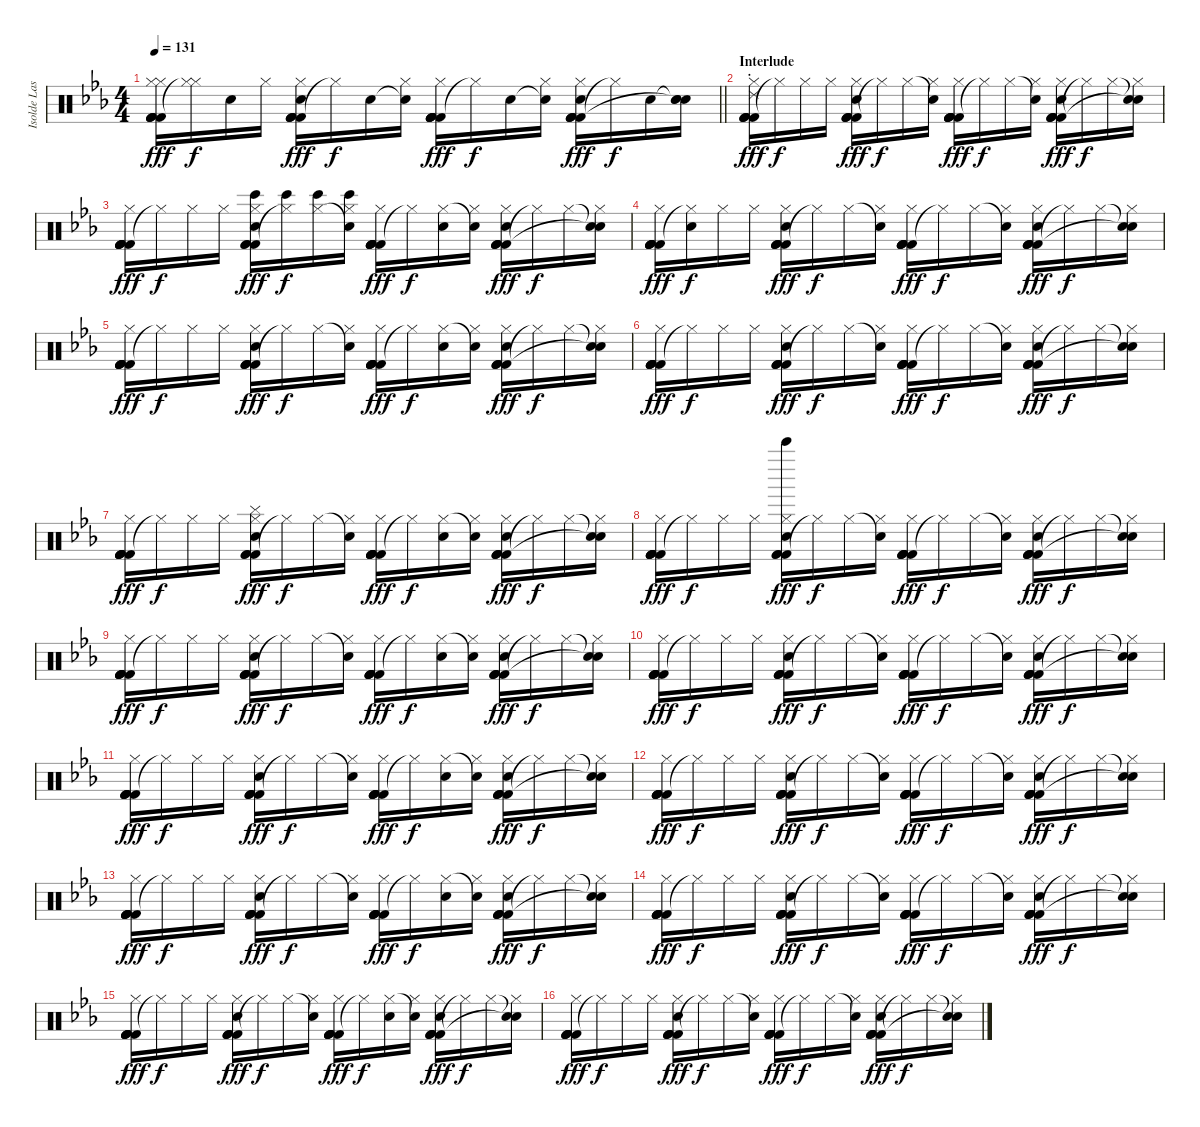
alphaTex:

\track ("Isolde Lasoen (Percussion)" "Isolde Las") {instrument percussion}
\staff {score}
\articulation defaults
\ts (4 4)
\tempo 131
\clef neutral
\barLineRight lightlight
\ks cminor
("Hi-Hat (closed)" "Kick (hit) 2" "Kick (hit) 2" "Kick (hit) 2" "Hi-Hat (closed)" "Kick (hit) 2").16{dy fff} ("Hi-Hat (closed)" "Hi-Hat (closed)"{t}).16{dy f} "Hand Clap (hit)".16 "Hi-Hat (closed)".16 ("Kick (hit) 2" "Kick (hit) 2" "Kick (hit) 2" "Kick (hit) 2" "Hi-Hat (closed)" "Hand Clap (hit)").16{dy fff} "Hi-Hat (closed)"{t}.16{dy f} "Hand Clap (hit)".16 ("Snare (hit)"{t} "Hi-Hat (closed)").16 ("Kick (hit) 2" "Kick (hit) 2" "Kick (hit) 2" "Kick (hit) 2" "Hi-Hat (closed)" "Kick (hit) 2").16{dy fff} "Hi-Hat (closed)"{t}.16{dy f} "Hand Clap (hit)".16 ("Snare (hit)"{t} "Hi-Hat (closed)").16 ("Kick (hit) 2" "Kick (hit) 2" "Kick (hit) 2" "Kick (hit) 2" "Hi-Hat (closed)" "Hand Clap (hit)").16{dy fff} "Hi-Hat (closed)"{t}.16{dy f} "Hand Clap (hit)".16 ("Snare (hit)"{t} "Hand Clap (hit)" "Snare (hit)"{t}).16 |
\section ("" "Interlude")
("Kick (hit) 2" "Kick (hit) 2" "Ride (choke) 2" "Kick (hit) 2" "Hi-Hat (closed)" "Kick (hit) 2").16{dy fff} "Hi-Hat (closed)"{t}.16{dy f} "Hi-Hat (closed)".16 "Hi-Hat (closed)".16 ("Kick (hit) 2" "Kick (hit) 2" "Kick (hit) 2" "Kick (hit) 2" "Hi-Hat (closed)" "Hand Clap (hit)").16{dy fff} "Hi-Hat (closed)"{t}.16{dy f} "Hi-Hat (closed)".16 ("Snare (hit)"{t} "Hi-Hat (closed)").16 ("Kick (hit) 2" "Kick (hit) 2" "Kick (hit) 2" "Kick (hit) 2" "Hi-Hat (closed)" "Kick (hit) 2").16{dy fff} "Hi-Hat (closed)"{t}.16{dy f} "Hi-Hat (closed)".16 ("Snare (hit)"{t} "Hi-Hat (closed)").16 ("Kick (hit) 2" "Kick (hit) 2" "Kick (hit) 2" "Kick (hit) 2" "Hi-Hat (closed)" "Hand Clap (hit)").16{dy fff} "Hi-Hat (closed)"{t}.16{dy f} "Hi-Hat (closed)".16 ("Snare (hit)"{t} "Hi-Hat (closed)" "Snare (hit)"{t}).16 |
("Kick (hit) 2" "Kick (hit) 2" "Kick (hit) 2" "Kick (hit) 2" "Hi-Hat (closed)" "Kick (hit) 2").16{dy fff} "Hi-Hat (closed)"{t}.16{dy f} "Hi-Hat (closed)".16 "Hi-Hat (closed)".16 ("Kick (hit) 2" "Kick (hit) 2" "Bongo High (hit)" "Kick (hit) 2" "Hi-Hat (closed)" "Hand Clap (hit)").16{dy fff} ("Bongo High (hit)" "Hi-Hat (closed)"{t}).16{dy f} ("Bongo High (hit)" "Hi-Hat (closed)").16 ("Bongo High (hit)" "Snare (hit)"{t} "Hi-Hat (closed)").16 ("Kick (hit) 2" "Kick (hit) 2" "Kick (hit) 2" "Kick (hit) 2" "Hi-Hat (closed)" "Kick (hit) 2").16{dy fff} "Hi-Hat (closed)"{t}.16{dy f} ("Hi-Hat (closed)" "Hand Clap (hit)").16 ("Snare (hit)"{t} "Hi-Hat (closed)").16 ("Kick (hit) 2" "Kick (hit) 2" "Kick (hit) 2" "Kick (hit) 2" "Hi-Hat (closed)" "Hand Clap (hit)").16{dy fff} "Hi-Hat (closed)"{t}.16{dy f} "Hi-Hat (closed)".16 ("Snare (hit)"{t} "Hi-Hat (closed)" "Snare (hit)"{t}).16 |
("Kick (hit) 2" "Kick (hit) 2" "Kick (hit) 2" "Kick (hit) 2" "Hi-Hat (closed)" "Kick (hit) 2").16{dy fff} ("Metronome (bell)" "Hi-Hat (closed)"{t}).16{dy f} "Hi-Hat (closed)".16 "Hi-Hat (closed)".16 ("Kick (hit) 2" "Kick (hit) 2" "Kick (hit) 2" "Kick (hit) 2" "Hi-Hat (closed)" "Hand Clap (hit)").16{dy fff} "Hi-Hat (closed)"{t}.16{dy f} "Hi-Hat (closed)".16 ("Snare (hit)"{t} "Hi-Hat (closed)").16 ("Kick (hit) 2" "Kick (hit) 2" "Kick (hit) 2" "Kick (hit) 2" "Hi-Hat (closed)" "Kick (hit) 2").16{dy fff} "Hi-Hat (closed)"{t}.16{dy f} "Hi-Hat (closed)".16 ("Snare (hit)"{t} "Hi-Hat (closed)").16 ("Kick (hit) 2" "Kick (hit) 2" "Kick (hit) 2" "Kick (hit) 2" "Hi-Hat (closed)" "Hand Clap (hit)").16{dy fff} "Hi-Hat (closed)"{t}.16{dy f} "Hi-Hat (closed)".16 ("Snare (hit)"{t} "Hi-Hat (closed)" "Snare (hit)"{t}).16 |
("Kick (hit) 2" "Kick (hit) 2" "Kick (hit) 2" "Kick (hit) 2" "Hi-Hat (closed)" "Kick (hit) 2").16{dy fff} "Hi-Hat (closed)"{t}.16{dy f} "Hi-Hat (closed)".16 "Hi-Hat (closed)".16 ("Kick (hit) 2" "Kick (hit) 2" "Kick (hit) 2" "Kick (hit) 2" "Hi-Hat (closed)" "Hand Clap (hit)").16{dy fff} "Hi-Hat (closed)"{t}.16{dy f} "Hi-Hat (closed)".16 ("Snare (hit)"{t} "Hi-Hat (closed)").16 ("Kick (hit) 2" "Kick (hit) 2" "Kick (hit) 2" "Kick (hit) 2" "Hi-Hat (closed)" "Kick (hit) 2").16{dy fff} "Hi-Hat (closed)"{t}.16{dy f} ("Hi-Hat (closed)" "Hand Clap (hit)").16 ("Snare (hit)"{t} "Hi-Hat (closed)").16 ("Kick (hit) 2" "Kick (hit) 2" "Kick (hit) 2" "Kick (hit) 2" "Hi-Hat (closed)" "Hand Clap (hit)").16{dy fff} "Hi-Hat (closed)"{t}.16{dy f} "Hi-Hat (closed)".16 ("Snare (hit)"{t} "Hi-Hat (closed)" "Snare (hit)"{t}).16 |
("Kick (hit) 2" "Kick (hit) 2" "Kick (hit) 2" "Kick (hit) 2" "Hi-Hat (closed)" "Kick (hit) 2").16{dy fff} "Hi-Hat (closed)"{t}.16{dy f} "Hi-Hat (closed)".16 "Hi-Hat (closed)".16 ("Kick (hit) 2" "Kick (hit) 2" "Kick (hit) 2" "Kick (hit) 2" "Hi-Hat (closed)" "Hand Clap (hit)").16{dy fff} "Hi-Hat (closed)"{t}.16{dy f} "Hi-Hat (closed)".16 ("Snare (hit)"{t} "Hi-Hat (closed)").16 ("Kick (hit) 2" "Kick (hit) 2" "Kick (hit) 2" "Kick (hit) 2" "Hi-Hat (closed)" "Kick (hit) 2").16{dy fff} "Hi-Hat (closed)"{t}.16{dy f} "Hi-Hat (closed)".16 ("Snare (hit)"{t} "Hi-Hat (closed)").16 ("Kick (hit) 2" "Kick (hit) 2" "Kick (hit) 2" "Kick (hit) 2" "Hi-Hat (closed)" "Hand Clap (hit)").16{dy fff} "Hi-Hat (closed)"{t}.16{dy f} "Hi-Hat (closed)".16 ("Snare (hit)"{t} "Hi-Hat (closed)" "Snare (hit)"{t}).16 |
("Kick (hit) 2" "Kick (hit) 2" "Kick (hit) 2" "Kick (hit) 2" "Hi-Hat (closed)" "Kick (hit) 2").16{dy fff} "Hi-Hat (closed)"{t}.16{dy f} "Hi-Hat (closed)".16 "Hi-Hat (closed)".16 ("Kick (hit) 2" "Kick (hit) 2" "Cymbal (hit)" "Kick (hit) 2" "Hi-Hat (closed)" "Hand Clap (hit)").16{dy fff} "Hi-Hat (closed)"{t}.16{dy f} "Hi-Hat (closed)".16 ("Snare (hit)"{t} "Hi-Hat (closed)").16 ("Kick (hit) 2" "Kick (hit) 2" "Kick (hit) 2" "Kick (hit) 2" "Hi-Hat (closed)" "Kick (hit) 2").16{dy fff} "Hi-Hat (closed)"{t}.16{dy f} ("Hi-Hat (closed)" "Hand Clap (hit)").16 ("Snare (hit)"{t} "Hi-Hat (closed)").16 ("Kick (hit) 2" "Kick (hit) 2" "Kick (hit) 2" "Kick (hit) 2" "Hi-Hat (closed)" "Hand Clap (hit)").16{dy fff} "Hi-Hat (closed)"{t}.16{dy f} "Hi-Hat (closed)".16 ("Snare (hit)"{t} "Hi-Hat (closed)" "Snare (hit)"{t}).16 |
("Kick (hit) 2" "Kick (hit) 2" "Kick (hit) 2" "Kick (hit) 2" "Hi-Hat (closed)" "Kick (hit) 2").16{dy fff} "Hi-Hat (closed)"{t}.16{dy f} "Hi-Hat (closed)".16 "Hi-Hat (closed)".16 ("Kick (hit) 2" "Kick (hit) 2" "Bell Tree (hit)" "Kick (hit) 2" "Hi-Hat (closed)" "Hand Clap (hit)").16{dy fff} "Hi-Hat (closed)"{t}.16{dy f} "Hi-Hat (closed)".16 ("Snare (hit)"{t} "Hi-Hat (closed)").16 ("Kick (hit) 2" "Kick (hit) 2" "Kick (hit) 2" "Kick (hit) 2" "Hi-Hat (closed)" "Kick (hit) 2").16{dy fff} "Hi-Hat (closed)"{t}.16{dy f} "Hi-Hat (closed)".16 ("Snare (hit)"{t} "Hi-Hat (closed)").16 ("Kick (hit) 2" "Kick (hit) 2" "Kick (hit) 2" "Kick (hit) 2" "Hi-Hat (closed)" "Hand Clap (hit)").16{dy fff} "Hi-Hat (closed)"{t}.16{dy f} "Hi-Hat (closed)".16 ("Snare (hit)"{t} "Hi-Hat (closed)" "Snare (hit)"{t}).16 |
("Kick (hit) 2" "Kick (hit) 2" "Kick (hit) 2" "Kick (hit) 2" "Hi-Hat (closed)" "Kick (hit) 2").16{dy fff} "Hi-Hat (closed)"{t}.16{dy f} "Hi-Hat (closed)".16 "Hi-Hat (closed)".16 ("Kick (hit) 2" "Kick (hit) 2" "Kick (hit) 2" "Kick (hit) 2" "Hi-Hat (closed)" "Hand Clap (hit)").16{dy fff} "Hi-Hat (closed)"{t}.16{dy f} "Hi-Hat (closed)".16 ("Snare (hit)"{t} "Hi-Hat (closed)").16 ("Kick (hit) 2" "Kick (hit) 2" "Kick (hit) 2" "Kick (hit) 2" "Hi-Hat (closed)" "Kick (hit) 2").16{dy fff} "Hi-Hat (closed)"{t}.16{dy f} ("Hi-Hat (closed)" "Hand Clap (hit)").16 ("Snare (hit)"{t} "Hi-Hat (closed)").16 ("Kick (hit) 2" "Kick (hit) 2" "Kick (hit) 2" "Kick (hit) 2" "Hi-Hat (closed)" "Hand Clap (hit)").16{dy fff} "Hi-Hat (closed)"{t}.16{dy f} "Hi-Hat (closed)".16 ("Snare (hit)"{t} "Hi-Hat (closed)" "Snare (hit)"{t}).16 |
("Kick (hit) 2" "Kick (hit) 2" "Kick (hit) 2" "Kick (hit) 2" "Hi-Hat (closed)" "Kick (hit) 2").16{dy fff} "Hi-Hat (closed)"{t}.16{dy f} "Hi-Hat (closed)".16 "Hi-Hat (closed)".16 ("Kick (hit) 2" "Kick (hit) 2" "Kick (hit) 2" "Kick (hit) 2" "Hi-Hat (closed)" "Hand Clap (hit)").16{dy fff} "Hi-Hat (closed)"{t}.16{dy f} "Hi-Hat (closed)".16 ("Snare (hit)"{t} "Hi-Hat (closed)").16 ("Kick (hit) 2" "Kick (hit) 2" "Kick (hit) 2" "Kick (hit) 2" "Hi-Hat (closed)" "Kick (hit) 2").16{dy fff} "Hi-Hat (closed)"{t}.16{dy f} "Hi-Hat (closed)".16 ("Snare (hit)"{t} "Hi-Hat (closed)").16 ("Kick (hit) 2" "Kick (hit) 2" "Kick (hit) 2" "Kick (hit) 2" "Hi-Hat (closed)" "Hand Clap (hit)").16{dy fff} "Hi-Hat (closed)"{t}.16{dy f} "Hi-Hat (closed)".16 ("Snare (hit)"{t} "Hi-Hat (closed)" "Snare (hit)"{t}).16 |
("Kick (hit) 2" "Kick (hit) 2" "Kick (hit) 2" "Kick (hit) 2" "Hi-Hat (closed)" "Kick (hit) 2").16{dy fff} "Hi-Hat (closed)"{t}.16{dy f} "Hi-Hat (closed)".16 "Hi-Hat (closed)".16 ("Kick (hit) 2" "Kick (hit) 2" "Kick (hit) 2" "Kick (hit) 2" "Hi-Hat (closed)" "Hand Clap (hit)").16{dy fff} "Hi-Hat (closed)"{t}.16{dy f} "Hi-Hat (closed)".16 ("Snare (hit)"{t} "Hi-Hat (closed)").16 ("Kick (hit) 2" "Kick (hit) 2" "Kick (hit) 2" "Kick (hit) 2" "Hi-Hat (closed)" "Kick (hit) 2").16{dy fff} "Hi-Hat (closed)"{t}.16{dy f} ("Hi-Hat (closed)" "Hand Clap (hit)").16 ("Snare (hit)"{t} "Hi-Hat (closed)").16 ("Kick (hit) 2" "Kick (hit) 2" "Kick (hit) 2" "Kick (hit) 2" "Hi-Hat (closed)" "Hand Clap (hit)").16{dy fff} "Hi-Hat (closed)"{t}.16{dy f} "Hi-Hat (closed)".16 ("Snare (hit)"{t} "Hi-Hat (closed)" "Snare (hit)"{t}).16 |
("Kick (hit) 2" "Kick (hit) 2" "Kick (hit) 2" "Kick (hit) 2" "Hi-Hat (closed)" "Kick (hit) 2").16{dy fff} "Hi-Hat (closed)"{t}.16{dy f} "Hi-Hat (closed)".16 "Hi-Hat (closed)".16 ("Kick (hit) 2" "Kick (hit) 2" "Kick (hit) 2" "Kick (hit) 2" "Hi-Hat (closed)" "Hand Clap (hit)").16{dy fff} "Hi-Hat (closed)"{t}.16{dy f} "Hi-Hat (closed)".16 ("Snare (hit)"{t} "Hi-Hat (closed)").16 ("Kick (hit) 2" "Kick (hit) 2" "Kick (hit) 2" "Kick (hit) 2" "Hi-Hat (closed)" "Kick (hit) 2").16{dy fff} "Hi-Hat (closed)"{t}.16{dy f} "Hi-Hat (closed)".16 ("Snare (hit)"{t} "Hi-Hat (closed)").16 ("Kick (hit) 2" "Kick (hit) 2" "Kick (hit) 2" "Kick (hit) 2" "Hi-Hat (closed)" "Hand Clap (hit)").16{dy fff} "Hi-Hat (closed)"{t}.16{dy f} "Hi-Hat (closed)".16 ("Snare (hit)"{t} "Hi-Hat (closed)" "Snare (hit)"{t}).16 |
("Kick (hit) 2" "Kick (hit) 2" "Kick (hit) 2" "Kick (hit) 2" "Hi-Hat (closed)" "Kick (hit) 2").16{dy fff} "Hi-Hat (closed)"{t}.16{dy f} "Hi-Hat (closed)".16 "Hi-Hat (closed)".16 ("Kick (hit) 2" "Kick (hit) 2" "Kick (hit) 2" "Kick (hit) 2" "Hi-Hat (closed)" "Hand Clap (hit)").16{dy fff} "Hi-Hat (closed)"{t}.16{dy f} "Hi-Hat (closed)".16 ("Snare (hit)"{t} "Hi-Hat (closed)").16 ("Kick (hit) 2" "Kick (hit) 2" "Kick (hit) 2" "Kick (hit) 2" "Hi-Hat (closed)" "Kick (hit) 2").16{dy fff} "Hi-Hat (closed)"{t}.16{dy f} ("Hi-Hat (closed)" "Hand Clap (hit)").16 ("Snare (hit)"{t} "Hi-Hat (closed)").16 ("Kick (hit) 2" "Kick (hit) 2" "Kick (hit) 2" "Kick (hit) 2" "Hi-Hat (closed)" "Hand Clap (hit)").16{dy fff} "Hi-Hat (closed)"{t}.16{dy f} "Hi-Hat (closed)".16 ("Snare (hit)"{t} "Hi-Hat (closed)" "Snare (hit)"{t}).16 |
("Kick (hit) 2" "Kick (hit) 2" "Kick (hit) 2" "Kick (hit) 2" "Hi-Hat (closed)" "Kick (hit) 2").16{dy fff} "Hi-Hat (closed)"{t}.16{dy f} "Hi-Hat (closed)".16 "Hi-Hat (closed)".16 ("Kick (hit) 2" "Kick (hit) 2" "Kick (hit) 2" "Kick (hit) 2" "Hi-Hat (closed)" "Hand Clap (hit)").16{dy fff} "Hi-Hat (closed)"{t}.16{dy f} "Hi-Hat (closed)".16 ("Snare (hit)"{t} "Hi-Hat (closed)").16 ("Kick (hit) 2" "Kick (hit) 2" "Kick (hit) 2" "Kick (hit) 2" "Hi-Hat (closed)" "Kick (hit) 2").16{dy fff} "Hi-Hat (closed)"{t}.16{dy f} "Hi-Hat (closed)".16 ("Snare (hit)"{t} "Hi-Hat (closed)").16 ("Kick (hit) 2" "Kick (hit) 2" "Kick (hit) 2" "Kick (hit) 2" "Hi-Hat (closed)" "Hand Clap (hit)").16{dy fff} "Hi-Hat (closed)"{t}.16{dy f} "Hi-Hat (closed)".16 ("Snare (hit)"{t} "Hi-Hat (closed)" "Snare (hit)"{t}).16 |
("Kick (hit) 2" "Kick (hit) 2" "Kick (hit) 2" "Kick (hit) 2" "Hi-Hat (closed)" "Kick (hit) 2").16{dy fff} "Hi-Hat (closed)"{t}.16{dy f} "Hi-Hat (closed)".16 "Hi-Hat (closed)".16 ("Kick (hit) 2" "Kick (hit) 2" "Kick (hit) 2" "Kick (hit) 2" "Hi-Hat (closed)" "Hand Clap (hit)").16{dy fff} "Hi-Hat (closed)"{t}.16{dy f} "Hi-Hat (closed)".16 ("Snare (hit)"{t} "Hi-Hat (closed)").16 ("Kick (hit) 2" "Kick (hit) 2" "Kick (hit) 2" "Kick (hit) 2" "Hi-Hat (closed)" "Kick (hit) 2").16{dy fff} "Hi-Hat (closed)"{t}.16{dy f} ("Hi-Hat (closed)" "Hand Clap (hit)").16 ("Snare (hit)"{t} "Hi-Hat (closed)").16 ("Kick (hit) 2" "Kick (hit) 2" "Kick (hit) 2" "Kick (hit) 2" "Hi-Hat (closed)" "Hand Clap (hit)").16{dy fff} "Hi-Hat (closed)"{t}.16{dy f} "Hi-Hat (closed)".16 ("Snare (hit)"{t} "Hi-Hat (closed)" "Snare (hit)"{t}).16 |
("Kick (hit) 2" "Kick (hit) 2" "Kick (hit) 2" "Kick (hit) 2" "Hi-Hat (closed)" "Kick (hit) 2").16{dy fff} "Hi-Hat (closed)"{t}.16{dy f} "Hi-Hat (closed)".16 "Hi-Hat (closed)".16 ("Kick (hit) 2" "Kick (hit) 2" "Kick (hit) 2" "Kick (hit) 2" "Hi-Hat (closed)" "Hand Clap (hit)").16{dy fff} "Hi-Hat (closed)"{t}.16{dy f} "Hi-Hat (closed)".16 ("Snare (hit)"{t} "Hi-Hat (closed)").16 ("Kick (hit) 2" "Kick (hit) 2" "Kick (hit) 2" "Kick (hit) 2" "Hi-Hat (closed)" "Kick (hit) 2").16{dy fff} "Hi-Hat (closed)"{t}.16{dy f} "Hi-Hat (closed)".16 ("Snare (hit)"{t} "Hi-Hat (closed)").16 ("Kick (hit) 2" "Kick (hit) 2" "Kick (hit) 2" "Kick (hit) 2" "Hi-Hat (closed)" "Hand Clap (hit)").16{dy fff} "Hi-Hat (closed)"{t}.16{dy f} "Hi-Hat (closed)".16 ("Snare (hit)"{t} "Hi-Hat (closed)" "Snare (hit)"{t}).16
